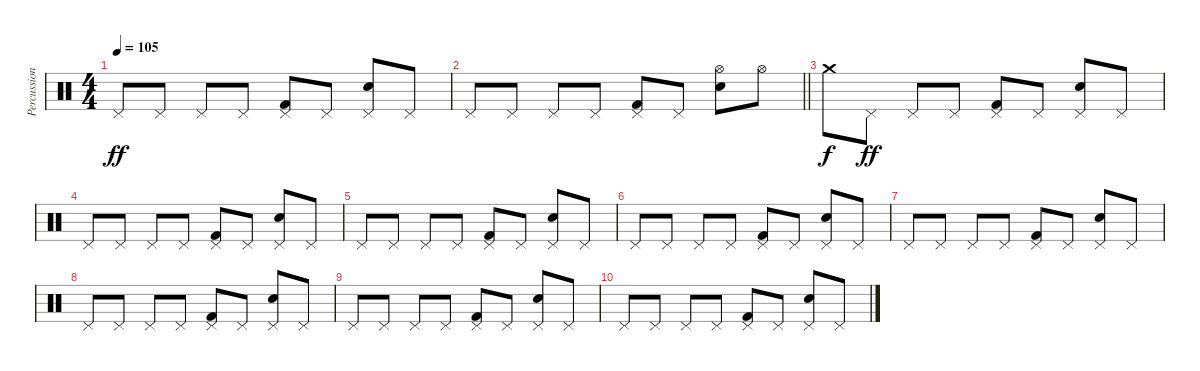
\track ("Percussion" "Percussion") {instrument percussion}
\staff {score}
\articulation defaults
\ts (4 4)
\tempo 105
\clef neutral
\ks c "Pedal Hi-Hat (hit)".8{dy ff} "Pedal Hi-Hat (hit)".8 "Pedal Hi-Hat (hit)".8 "Pedal Hi-Hat (hit)".8
("Pedal Hi-Hat (hit)" "Kick (hit) 2").8 "Pedal Hi-Hat (hit)".8 ("Pedal Hi-Hat (hit)" "Electric Snare (hit)").8 "Pedal Hi-Hat (hit)".8 |
\barLineRight lightlight "Pedal Hi-Hat (hit)".8 "Pedal Hi-Hat (hit)".8 "Pedal Hi-Hat (hit)".8 "Pedal Hi-Hat (hit)".8
("Pedal Hi-Hat (hit)" "Kick (hit) 2").8 "Pedal Hi-Hat (hit)".8 ("Hi-Hat (open)" "Electric Snare (hit)").8 "Hi-Hat (open)".8 |
"Crash medium (hit)".8{dy f} "Pedal Hi-Hat (hit)".8{dy ff} "Pedal Hi-Hat (hit)".8 "Pedal Hi-Hat (hit)".8 ("Pedal Hi-Hat (hit)" "Kick (hit) 2").8 "Pedal Hi-Hat (hit)".8 ("Pedal Hi-Hat (hit)" "Electric Snare (hit)").8 "Pedal Hi-Hat (hit)".8 |
"Pedal Hi-Hat (hit)".8 "Pedal Hi-Hat (hit)".8 "Pedal Hi-Hat (hit)".8 "Pedal Hi-Hat (hit)".8 ("Pedal Hi-Hat (hit)" "Kick (hit) 2").8 "Pedal Hi-Hat (hit)".8 ("Pedal Hi-Hat (hit)" "Electric Snare (hit)").8 "Pedal Hi-Hat (hit)".8 |
"Pedal Hi-Hat (hit)".8 "Pedal Hi-Hat (hit)".8 "Pedal Hi-Hat (hit)".8 "Pedal Hi-Hat (hit)".8 ("Pedal Hi-Hat (hit)" "Kick (hit) 2").8 "Pedal Hi-Hat (hit)".8 ("Pedal Hi-Hat (hit)" "Electric Snare (hit)").8 "Pedal Hi-Hat (hit)".8 |
"Pedal Hi-Hat (hit)".8 "Pedal Hi-Hat (hit)".8 "Pedal Hi-Hat (hit)".8 "Pedal Hi-Hat (hit)".8 ("Pedal Hi-Hat (hit)" "Kick (hit) 2").8 "Pedal Hi-Hat (hit)".8 ("Pedal Hi-Hat (hit)" "Electric Snare (hit)").8 "Pedal Hi-Hat (hit)".8 |
"Pedal Hi-Hat (hit)".8 "Pedal Hi-Hat (hit)".8 "Pedal Hi-Hat (hit)".8 "Pedal Hi-Hat (hit)".8 ("Pedal Hi-Hat (hit)" "Kick (hit) 2").8 "Pedal Hi-Hat (hit)".8 ("Pedal Hi-Hat (hit)" "Electric Snare (hit)").8 "Pedal Hi-Hat (hit)".8 |
"Pedal Hi-Hat (hit)".8 "Pedal Hi-Hat (hit)".8 "Pedal Hi-Hat (hit)".8 "Pedal Hi-Hat (hit)".8 ("Pedal Hi-Hat (hit)" "Kick (hit) 2").8 "Pedal Hi-Hat (hit)".8 ("Pedal Hi-Hat (hit)" "Electric Snare (hit)").8 "Pedal Hi-Hat (hit)".8 |
"Pedal Hi-Hat (hit)".8 "Pedal Hi-Hat (hit)".8 "Pedal Hi-Hat (hit)".8 "Pedal Hi-Hat (hit)".8 ("Pedal Hi-Hat (hit)" "Kick (hit) 2").8 "Pedal Hi-Hat (hit)".8 ("Pedal Hi-Hat (hit)" "Electric Snare (hit)").8 "Pedal Hi-Hat (hit)".8 |
"Pedal Hi-Hat (hit)".8 "Pedal Hi-Hat (hit)".8 "Pedal Hi-Hat (hit)".8 "Pedal Hi-Hat (hit)".8 ("Pedal Hi-Hat (hit)" "Kick (hit) 2").8 "Pedal Hi-Hat (hit)".8 ("Pedal Hi-Hat (hit)" "Electric Snare (hit)").8 "Pedal Hi-Hat (hit)".8
